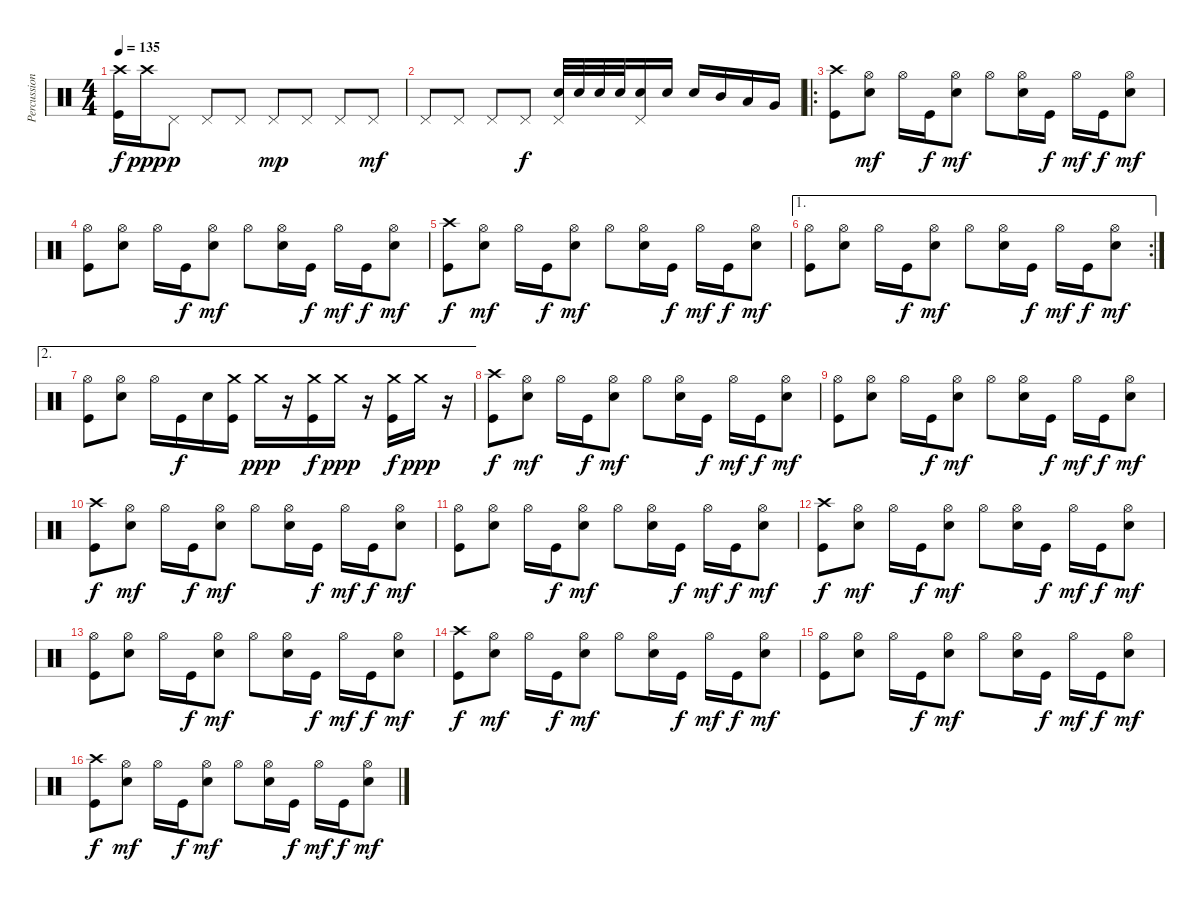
\track ("Percussion" "Percussion") {instrument percussion}
\staff {score}
\articulation defaults
\ts (4 4)
\tempo 135
\clef neutral
\ks c
("Crash high (hit)" "Kick (hit)").16{dy f} "Crash high (hit)".16{dy ppp} "Pedal Hi-Hat (hit)".8{dy p} "Pedal Hi-Hat (hit)".8 "Pedal Hi-Hat (hit)".8 "Pedal Hi-Hat (hit)".8{dy mp} "Pedal Hi-Hat (hit)".8 "Pedal Hi-Hat (hit)".8 "Pedal Hi-Hat (hit)".8{dy mf} |
"Pedal Hi-Hat (hit)".8 "Pedal Hi-Hat (hit)".8 "Pedal Hi-Hat (hit)".8 "Pedal Hi-Hat (hit)".8{dy f} ("Pedal Hi-Hat (hit)" "Electric Snare (hit)").32 "Electric Snare (hit)".32 "Electric Snare (hit)".32 "Electric Snare (hit)".32 ("Pedal Hi-Hat (hit)" "Electric Snare (hit)").16 "Electric Snare (hit)".16 "Electric Snare (hit)".16 "Mid Tom (hit)".16 "Low Tom (hit)".16 "Very Low Tom (hit)".16 |
\ro
("Crash high (hit)" "Kick (hit)").8 ("Hi-Hat (open)" "Electric Snare (hit)").8{dy mf} "Hi-Hat (open)".16 "Kick (hit)".16{dy f} ("Hi-Hat (open)" "Electric Snare (hit)").8{dy mf} "Hi-Hat (open)".8 ("Hi-Hat (open)" "Electric Snare (hit)").16 "Kick (hit)".16{dy f} "Hi-Hat (open)".16{dy mf} "Kick (hit)".16{dy f} ("Hi-Hat (open)" "Electric Snare (hit)").8{dy mf} |
("Hi-Hat (open)" "Kick (hit)").8 ("Hi-Hat (open)" "Electric Snare (hit)").8 "Hi-Hat (open)".16 "Kick (hit)".16{dy f} ("Hi-Hat (open)" "Electric Snare (hit)").8{dy mf} "Hi-Hat (open)".8 ("Hi-Hat (open)" "Electric Snare (hit)").16 "Kick (hit)".16{dy f} "Hi-Hat (open)".16{dy mf} "Kick (hit)".16{dy f} ("Hi-Hat (open)" "Electric Snare (hit)").8{dy mf} |
("Crash high (hit)" "Kick (hit)").8{dy f} ("Hi-Hat (open)" "Electric Snare (hit)").8{dy mf} "Hi-Hat (open)".16 "Kick (hit)".16{dy f} ("Hi-Hat (open)" "Electric Snare (hit)").8{dy mf} "Hi-Hat (open)".8 ("Hi-Hat (open)" "Electric Snare (hit)").16 "Kick (hit)".16{dy f} "Hi-Hat (open)".16{dy mf} "Kick (hit)".16{dy f} ("Hi-Hat (open)" "Electric Snare (hit)").8{dy mf} |
\ae 1
\rc 2
("Hi-Hat (open)" "Kick (hit)").8 ("Hi-Hat (open)" "Electric Snare (hit)").8 "Hi-Hat (open)".16 "Kick (hit)".16{dy f} ("Hi-Hat (open)" "Electric Snare (hit)").8{dy mf} "Hi-Hat (open)".8 ("Hi-Hat (open)" "Electric Snare (hit)").16 "Kick (hit)".16{dy f} "Hi-Hat (open)".16{dy mf} "Kick (hit)".16{dy f} ("Hi-Hat (open)" "Electric Snare (hit)").8{dy mf} |
\ae 2
("Hi-Hat (open)" "Kick (hit)").8 ("Hi-Hat (open)" "Electric Snare (hit)").8 "Hi-Hat (open)".16 "Kick (hit)".16{dy f} "Electric Snare (hit)".16 ("Crash medium (hit)" "Kick (hit)").16 "Crash medium (hit)".16{dy ppp} r.16 ("Crash medium (hit)" "Kick (hit)").16{dy f} "Crash medium (hit)".16{dy ppp} r.16 ("Crash medium (hit)" "Kick (hit)").16{dy f} "Crash medium (hit)".16{dy ppp} r.16 |
("Crash high (hit)" "Kick (hit)").8{dy f} ("Hi-Hat (open)" "Electric Snare (hit)").8{dy mf} "Hi-Hat (open)".16 "Kick (hit)".16{dy f} ("Hi-Hat (open)" "Electric Snare (hit)").8{dy mf} "Hi-Hat (open)".8 ("Hi-Hat (open)" "Electric Snare (hit)").16 "Kick (hit)".16{dy f} "Hi-Hat (open)".16{dy mf} "Kick (hit)".16{dy f} ("Hi-Hat (open)" "Electric Snare (hit)").8{dy mf} |
("Hi-Hat (open)" "Kick (hit)").8 ("Hi-Hat (open)" "Electric Snare (hit)").8 "Hi-Hat (open)".16 "Kick (hit)".16{dy f} ("Hi-Hat (open)" "Electric Snare (hit)").8{dy mf} "Hi-Hat (open)".8 ("Hi-Hat (open)" "Electric Snare (hit)").16 "Kick (hit)".16{dy f} "Hi-Hat (open)".16{dy mf} "Kick (hit)".16{dy f} ("Hi-Hat (open)" "Electric Snare (hit)").8{dy mf} |
("Crash high (hit)" "Kick (hit)").8{dy f} ("Hi-Hat (open)" "Electric Snare (hit)").8{dy mf} "Hi-Hat (open)".16 "Kick (hit)".16{dy f} ("Hi-Hat (open)" "Electric Snare (hit)").8{dy mf} "Hi-Hat (open)".8 ("Hi-Hat (open)" "Electric Snare (hit)").16 "Kick (hit)".16{dy f} "Hi-Hat (open)".16{dy mf} "Kick (hit)".16{dy f} ("Hi-Hat (open)" "Electric Snare (hit)").8{dy mf} |
("Hi-Hat (open)" "Kick (hit)").8 ("Hi-Hat (open)" "Electric Snare (hit)").8 "Hi-Hat (open)".16 "Kick (hit)".16{dy f} ("Hi-Hat (open)" "Electric Snare (hit)").8{dy mf} "Hi-Hat (open)".8 ("Hi-Hat (open)" "Electric Snare (hit)").16 "Kick (hit)".16{dy f} "Hi-Hat (open)".16{dy mf} "Kick (hit)".16{dy f} ("Hi-Hat (open)" "Electric Snare (hit)").8{dy mf} |
("Crash high (hit)" "Kick (hit)").8{dy f} ("Hi-Hat (open)" "Electric Snare (hit)").8{dy mf} "Hi-Hat (open)".16 "Kick (hit)".16{dy f} ("Hi-Hat (open)" "Electric Snare (hit)").8{dy mf} "Hi-Hat (open)".8 ("Hi-Hat (open)" "Electric Snare (hit)").16 "Kick (hit)".16{dy f} "Hi-Hat (open)".16{dy mf} "Kick (hit)".16{dy f} ("Hi-Hat (open)" "Electric Snare (hit)").8{dy mf} |
("Hi-Hat (open)" "Kick (hit)").8 ("Hi-Hat (open)" "Electric Snare (hit)").8 "Hi-Hat (open)".16 "Kick (hit)".16{dy f} ("Hi-Hat (open)" "Electric Snare (hit)").8{dy mf} "Hi-Hat (open)".8 ("Hi-Hat (open)" "Electric Snare (hit)").16 "Kick (hit)".16{dy f} "Hi-Hat (open)".16{dy mf} "Kick (hit)".16{dy f} ("Hi-Hat (open)" "Electric Snare (hit)").8{dy mf} |
("Crash high (hit)" "Kick (hit)").8{dy f} ("Hi-Hat (open)" "Electric Snare (hit)").8{dy mf} "Hi-Hat (open)".16 "Kick (hit)".16{dy f} ("Hi-Hat (open)" "Electric Snare (hit)").8{dy mf} "Hi-Hat (open)".8 ("Hi-Hat (open)" "Electric Snare (hit)").16 "Kick (hit)".16{dy f} "Hi-Hat (open)".16{dy mf} "Kick (hit)".16{dy f} ("Hi-Hat (open)" "Electric Snare (hit)").8{dy mf} |
("Hi-Hat (open)" "Kick (hit)").8 ("Hi-Hat (open)" "Electric Snare (hit)").8 "Hi-Hat (open)".16 "Kick (hit)".16{dy f} ("Hi-Hat (open)" "Electric Snare (hit)").8{dy mf} "Hi-Hat (open)".8 ("Hi-Hat (open)" "Electric Snare (hit)").16 "Kick (hit)".16{dy f} "Hi-Hat (open)".16{dy mf} "Kick (hit)".16{dy f} ("Hi-Hat (open)" "Electric Snare (hit)").8{dy mf} |
("Crash high (hit)" "Kick (hit)").8{dy f} ("Hi-Hat (open)" "Electric Snare (hit)").8{dy mf} "Hi-Hat (open)".16 "Kick (hit)".16{dy f} ("Hi-Hat (open)" "Electric Snare (hit)").8{dy mf} "Hi-Hat (open)".8 ("Hi-Hat (open)" "Electric Snare (hit)").16 "Kick (hit)".16{dy f} "Hi-Hat (open)".16{dy mf} "Kick (hit)".16{dy f} ("Hi-Hat (open)" "Electric Snare (hit)").8{dy mf}
